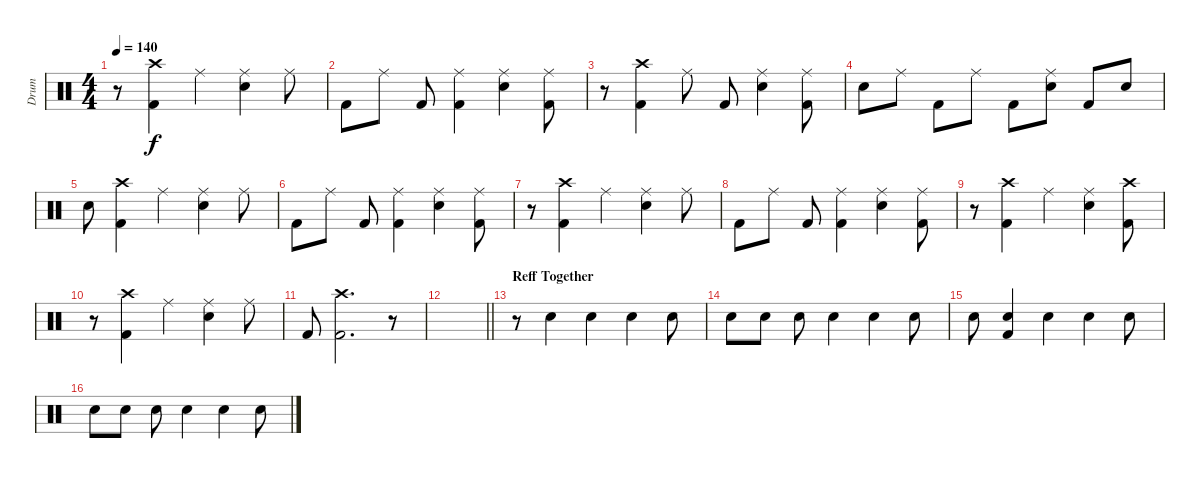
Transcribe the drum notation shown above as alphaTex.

\track ("Drum" "Drum") {instrument percussion}
\staff {score}
\articulation defaults
\ts (4 4)
\tempo 140
\clef neutral
\ks c
r.8{dy f} ("Crash high (hit)" "Kick (hit) 2").4 "Ride (middle)".4 ("Electric Snare (hit)" "Ride (middle)").4 "Ride (middle)".8 |
"Kick (hit) 2".8 "Ride (middle)".8 "Kick (hit) 2".8 ("Ride (middle)" "Kick (hit) 2").4 ("Electric Snare (hit)" "Ride (middle)").4 ("Ride (middle)" "Kick (hit) 2").8 |
r.8 ("Kick (hit) 2" "Crash high (hit)").4 "Ride (middle)".8 "Kick (hit) 2".8 ("Ride (middle)" "Electric Snare (hit)").4 ("Ride (middle)" "Kick (hit) 2").8 |
"Electric Snare (hit)".8 "Ride (middle)".8 "Kick (hit) 2".8 "Ride (middle)".8 "Kick (hit) 2".8 ("Ride (middle)" "Electric Snare (hit)").8 "Kick (hit) 2".8 "Electric Snare (hit)".8 |
"Electric Snare (hit)".8 ("Kick (hit) 2" "Crash high (hit)").4 "Ride (middle)".4 ("Ride (middle)" "Electric Snare (hit)").4 "Ride (middle)".8 |
"Kick (hit) 2".8 "Ride (middle)".8 "Kick (hit) 2".8 ("Ride (middle)" "Kick (hit) 2").4 ("Electric Snare (hit)" "Ride (middle)").4 ("Ride (middle)" "Kick (hit) 2").8 |
r.8 ("Crash high (hit)" "Kick (hit) 2").4 "Ride (middle)".4 ("Electric Snare (hit)" "Ride (middle)").4 "Ride (middle)".8 |
"Kick (hit) 2".8 "Ride (middle)".8 "Kick (hit) 2".8 ("Ride (middle)" "Kick (hit) 2").4 ("Electric Snare (hit)" "Ride (middle)").4 ("Ride (middle)" "Kick (hit) 2").8 |
r.8 ("Crash high (hit)" "Kick (hit) 2").4 "Ride (middle)".4 ("Electric Snare (hit)" "Ride (middle)").4 ("Crash high (hit)" "Kick (hit) 2").8 |
r.8 ("Crash high (hit)" "Kick (hit) 2").4 "Ride (middle)".4 ("Ride (middle)" "Electric Snare (hit)").4 "Ride (middle)".8 |
"Kick (hit) 2".8 ("Kick (hit) 2" "Crash high (hit)").2{d} r.8 |
\barLineRight lightlight
|
\section ("" "Reff Together")
r.8 "Electric Snare (hit)".4 "Electric Snare (hit)".4 "Electric Snare (hit)".4 "Electric Snare (hit)".8 |
"Electric Snare (hit)".8 "Electric Snare (hit)".8 "Electric Snare (hit)".8 "Electric Snare (hit)".4 "Electric Snare (hit)".4 "Electric Snare (hit)".8 |
"Electric Snare (hit)".8 ("Kick (hit) 2" "Electric Snare (hit)").4 "Electric Snare (hit)".4 "Electric Snare (hit)".4 "Electric Snare (hit)".8 |
"Electric Snare (hit)".8 "Electric Snare (hit)".8 "Electric Snare (hit)".8 "Electric Snare (hit)".4 "Electric Snare (hit)".4 "Electric Snare (hit)".8
